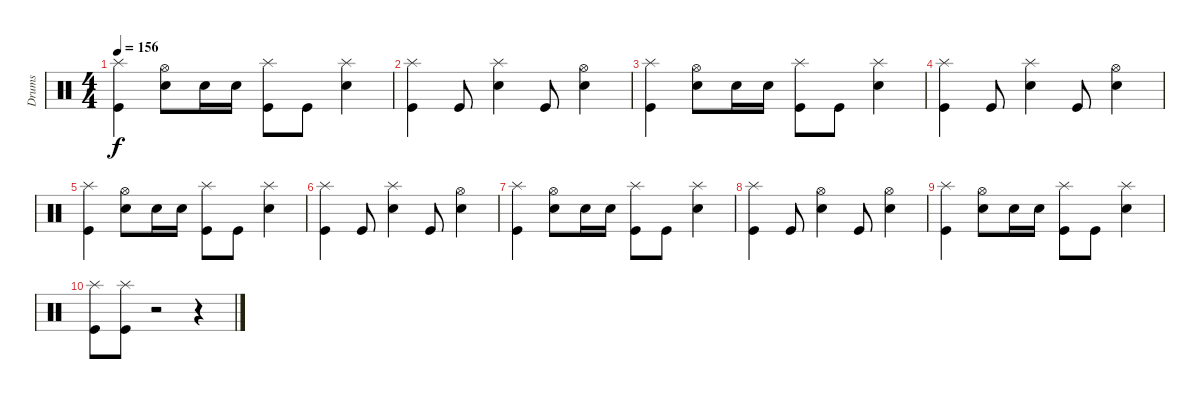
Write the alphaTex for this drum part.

\track ("Drums" "Drums") {instrument percussion}
\staff {score}
\articulation defaults
\ts (4 4)
\tempo 156
\clef neutral
\ks c
("Splash (hit)" "Kick (hit)").4{dy f} ("Hi-Hat (open)" "Snare (hit) 2").8 "Snare (hit) 2".16 "Snare (hit) 2".16 ("Splash (hit)" "Kick (hit)").8 "Kick (hit)".8 ("Splash (hit)" "Snare (hit) 2").4 |
("Splash (hit)" "Kick (hit)").4 "Kick (hit)".8 ("Splash (hit)" "Snare (hit) 2").4 "Kick (hit)".8 ("Hi-Hat (open)" "Snare (hit) 2").4 |
("Splash (hit)" "Kick (hit)").4 ("Hi-Hat (open)" "Snare (hit) 2").8 "Snare (hit) 2".16 "Snare (hit) 2".16 ("Splash (hit)" "Kick (hit)").8 "Kick (hit)".8 ("Splash (hit)" "Snare (hit) 2").4 |
("Splash (hit)" "Kick (hit)").4 "Kick (hit)".8 ("Splash (hit)" "Snare (hit) 2").4 "Kick (hit)".8 ("Hi-Hat (open)" "Snare (hit) 2").4 |
("Splash (hit)" "Kick (hit)").4 ("Hi-Hat (open)" "Snare (hit) 2").8 "Snare (hit) 2".16 "Snare (hit) 2".16 ("Splash (hit)" "Kick (hit)").8 "Kick (hit)".8 ("Splash (hit)" "Snare (hit) 2").4 |
("Splash (hit)" "Kick (hit)").4 "Kick (hit)".8 ("Splash (hit)" "Snare (hit) 2").4 "Kick (hit)".8 ("Hi-Hat (open)" "Snare (hit) 2").4 |
("Splash (hit)" "Kick (hit)").4 ("Hi-Hat (open)" "Snare (hit) 2").8 "Snare (hit) 2".16 "Snare (hit) 2".16 ("Splash (hit)" "Kick (hit)").8 "Kick (hit)".8 ("Splash (hit)" "Snare (hit) 2").4 |
("Splash (hit)" "Kick (hit)").4 "Kick (hit)".8 ("Hi-Hat (open)" "Snare (hit) 2").4 "Kick (hit)".8 ("Hi-Hat (open)" "Snare (hit) 2").4 |
("Splash (hit)" "Kick (hit)").4 ("Hi-Hat (open)" "Snare (hit) 2").8 "Snare (hit) 2".16 "Snare (hit) 2".16 ("Splash (hit)" "Kick (hit)").8 "Kick (hit)".8 ("Splash (hit)" "Snare (hit) 2").4 |
("Splash (hit)" "Kick (hit)").8 ("Splash (hit)" "Kick (hit)").8 r.2 r.4
